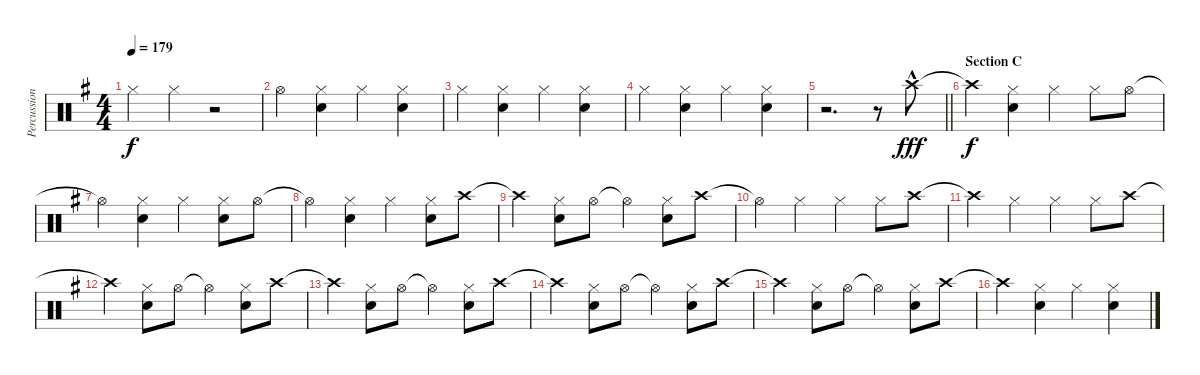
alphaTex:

\track ("Percussion 01" "Percussion") {instrument percussion}
\staff {score}
\articulation defaults
\ts (4 4)
\tempo 179
\clef neutral
\ks g "Hi-Hat (closed)".4{dy f} "Hi-Hat (closed)".4
r.2 |
"Hi-Hat (open)".4 ("Hi-Hat (closed)" "Snare (hit) 2").4 "Hi-Hat (closed)".4 ("Hi-Hat (closed)" "Snare (hit) 2").4 |
"Hi-Hat (closed)".4 ("Hi-Hat (closed)" "Snare (hit) 2").4 "Hi-Hat (closed)".4 ("Hi-Hat (closed)" "Snare (hit) 2").4 |
"Hi-Hat (closed)".4 ("Hi-Hat (closed)" "Snare (hit) 2").4 "Hi-Hat (closed)".4 ("Hi-Hat (closed)" "Snare (hit) 2").4 |
\barLineRight lightlight
r.2{d} r.8 "Crash high (hit)"{hac}.8{dy fff} |
\section ("" "Section C")
"Crash high (hit)"{t}.4{dy f} ("Hi-Hat (closed)" "Snare (hit) 2").4 "Hi-Hat (closed)".4 "Hi-Hat (closed)".8 "Hi-Hat (open)".8 |
"Hi-Hat (open)"{t}.4 ("Hi-Hat (closed)" "Snare (hit) 2").4 "Hi-Hat (closed)".4 ("Hi-Hat (closed)" "Snare (hit) 2").8 "Hi-Hat (open)".8 |
"Hi-Hat (open)"{t}.4 ("Hi-Hat (closed)" "Snare (hit) 2").4 "Hi-Hat (closed)".4 ("Hi-Hat (closed)" "Snare (hit) 2").8 "Crash high (hit)".8 |
"Crash high (hit)"{t}.4 ("Hi-Hat (closed)" "Snare (hit) 2").8 "Hi-Hat (open)".8 "Hi-Hat (open)"{t}.4 ("Hi-Hat (closed)" "Snare (hit) 2").8 "Crash high (hit)".8 |
"Hi-Hat (open)"{t}.4 "Hi-Hat (closed)".4 "Hi-Hat (closed)".4 "Hi-Hat (closed)".8 "Crash high (hit)".8 |
"Crash high (hit)"{t}.4 "Hi-Hat (closed)".4 "Hi-Hat (closed)".4 "Hi-Hat (closed)".8 "Crash high (hit)".8 |
"Crash high (hit)"{t}.4 ("Hi-Hat (closed)" "Snare (hit) 2").8 "Hi-Hat (open)".8 "Hi-Hat (open)"{t}.4 ("Hi-Hat (closed)" "Snare (hit) 2").8 "Crash high (hit)".8 |
"Crash high (hit)"{t}.4 ("Hi-Hat (closed)" "Snare (hit) 2").8 "Hi-Hat (open)".8 "Hi-Hat (open)"{t}.4 ("Hi-Hat (closed)" "Snare (hit) 2").8 "Crash high (hit)".8 |
"Crash high (hit)"{t}.4 ("Hi-Hat (closed)" "Snare (hit) 2").8 "Hi-Hat (open)".8 "Hi-Hat (open)"{t}.4 ("Hi-Hat (closed)" "Snare (hit) 2").8 "Crash high (hit)".8 |
"Crash high (hit)"{t}.4 ("Hi-Hat (closed)" "Snare (hit) 2").8 "Hi-Hat (open)".8 "Hi-Hat (open)"{t}.4 ("Hi-Hat (closed)" "Snare (hit) 2").8 "Crash high (hit)".8 |
"Crash high (hit)"{t}.4 ("Hi-Hat (closed)" "Snare (hit) 2").4 "Hi-Hat (closed)".4 ("Hi-Hat (closed)" "Snare (hit) 2").4
